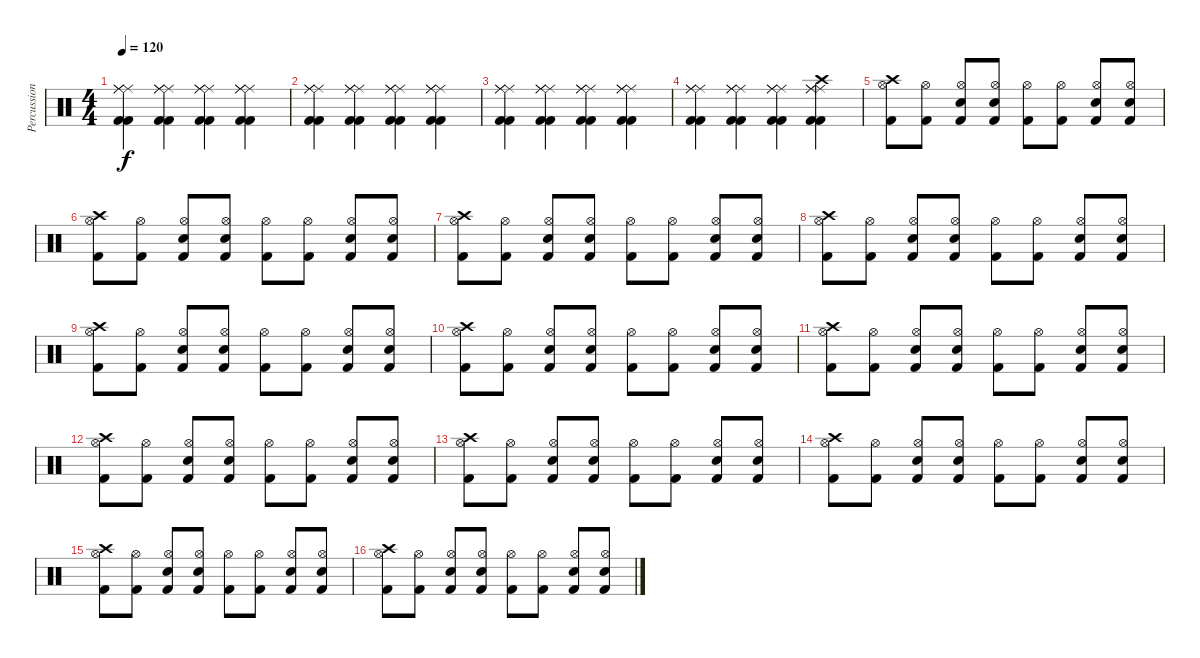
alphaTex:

\track ("Percussioni" "Percussion") {instrument percussion}
\staff {score}
\articulation defaults
\ts (4 4)
\tempo 120
\clef neutral
\ks c
("Kick (hit) 2" "Kick (hit) 2" "Ride (middle)" "Ride (middle)" "Ride (middle)").4{dy f} ("Kick (hit) 2" "Kick (hit) 2" "Ride (middle)" "Ride (middle)" "Ride (middle)").4 ("Kick (hit) 2" "Kick (hit) 2" "Ride (middle)" "Ride (middle)" "Ride (middle)").4 ("Kick (hit) 2" "Kick (hit) 2" "Ride (middle)" "Ride (middle)" "Ride (middle)").4 |
("Kick (hit) 2" "Kick (hit) 2" "Ride (middle)" "Ride (middle)" "Ride (middle)").4 ("Kick (hit) 2" "Kick (hit) 2" "Ride (middle)" "Ride (middle)" "Ride (middle)").4 ("Kick (hit) 2" "Kick (hit) 2" "Ride (middle)" "Ride (middle)" "Ride (middle)").4 ("Kick (hit) 2" "Kick (hit) 2" "Ride (middle)" "Ride (middle)" "Ride (middle)").4 |
("Kick (hit) 2" "Kick (hit) 2" "Ride (middle)" "Ride (middle)" "Ride (middle)").4 ("Kick (hit) 2" "Kick (hit) 2" "Ride (middle)" "Ride (middle)" "Ride (middle)").4 ("Kick (hit) 2" "Kick (hit) 2" "Ride (middle)" "Ride (middle)" "Ride (middle)").4 ("Kick (hit) 2" "Kick (hit) 2" "Ride (middle)" "Ride (middle)" "Ride (middle)").4 |
("Kick (hit) 2" "Kick (hit) 2" "Ride (middle)" "Ride (middle)" "Ride (middle)").4 ("Kick (hit) 2" "Kick (hit) 2" "Ride (middle)" "Ride (middle)" "Ride (middle)").4 ("Kick (hit) 2" "Kick (hit) 2" "Ride (middle)" "Ride (middle)" "Ride (middle)").4 ("Crash high (hit)" "Kick (hit) 2" "Kick (hit) 2" "Ride (middle)" "Ride (middle)" "Ride (middle)").4 |
("Hi-Hat (open)" "Kick (hit) 2" "Crash high (hit)").8 ("Hi-Hat (open)" "Kick (hit) 2").8 ("Hi-Hat (open)" "Kick (hit) 2" "Electric Snare (hit)").8 ("Hi-Hat (open)" "Kick (hit) 2" "Electric Snare (hit)").8 ("Hi-Hat (open)" "Kick (hit) 2").8 ("Hi-Hat (open)" "Kick (hit) 2").8 ("Hi-Hat (open)" "Kick (hit) 2" "Electric Snare (hit)").8 ("Hi-Hat (open)" "Kick (hit) 2" "Electric Snare (hit)").8 |
("Hi-Hat (open)" "Kick (hit) 2" "Crash high (hit)").8 ("Hi-Hat (open)" "Kick (hit) 2").8 ("Hi-Hat (open)" "Kick (hit) 2" "Electric Snare (hit)").8 ("Hi-Hat (open)" "Kick (hit) 2" "Electric Snare (hit)").8 ("Hi-Hat (open)" "Kick (hit) 2").8 ("Hi-Hat (open)" "Kick (hit) 2").8 ("Hi-Hat (open)" "Kick (hit) 2" "Electric Snare (hit)").8 ("Hi-Hat (open)" "Kick (hit) 2" "Electric Snare (hit)").8 |
("Hi-Hat (open)" "Kick (hit) 2" "Crash high (hit)").8 ("Hi-Hat (open)" "Kick (hit) 2").8 ("Hi-Hat (open)" "Kick (hit) 2" "Electric Snare (hit)").8 ("Hi-Hat (open)" "Kick (hit) 2" "Electric Snare (hit)").8 ("Hi-Hat (open)" "Kick (hit) 2").8 ("Hi-Hat (open)" "Kick (hit) 2").8 ("Hi-Hat (open)" "Kick (hit) 2" "Electric Snare (hit)").8 ("Hi-Hat (open)" "Kick (hit) 2" "Electric Snare (hit)").8 |
("Hi-Hat (open)" "Kick (hit) 2" "Crash high (hit)").8 ("Hi-Hat (open)" "Kick (hit) 2").8 ("Hi-Hat (open)" "Kick (hit) 2" "Electric Snare (hit)").8 ("Hi-Hat (open)" "Kick (hit) 2" "Electric Snare (hit)").8 ("Hi-Hat (open)" "Kick (hit) 2").8 ("Hi-Hat (open)" "Kick (hit) 2").8 ("Hi-Hat (open)" "Kick (hit) 2" "Electric Snare (hit)").8 ("Hi-Hat (open)" "Kick (hit) 2" "Electric Snare (hit)").8 |
("Hi-Hat (open)" "Kick (hit) 2" "Crash high (hit)").8 ("Hi-Hat (open)" "Kick (hit) 2").8 ("Hi-Hat (open)" "Kick (hit) 2" "Electric Snare (hit)").8 ("Hi-Hat (open)" "Kick (hit) 2" "Electric Snare (hit)").8 ("Hi-Hat (open)" "Kick (hit) 2").8 ("Hi-Hat (open)" "Kick (hit) 2").8 ("Hi-Hat (open)" "Kick (hit) 2" "Electric Snare (hit)").8 ("Hi-Hat (open)" "Kick (hit) 2" "Electric Snare (hit)").8 |
("Hi-Hat (open)" "Kick (hit) 2" "Crash high (hit)").8 ("Hi-Hat (open)" "Kick (hit) 2").8 ("Hi-Hat (open)" "Kick (hit) 2" "Electric Snare (hit)").8 ("Hi-Hat (open)" "Kick (hit) 2" "Electric Snare (hit)").8 ("Hi-Hat (open)" "Kick (hit) 2").8 ("Hi-Hat (open)" "Kick (hit) 2").8 ("Hi-Hat (open)" "Kick (hit) 2" "Electric Snare (hit)").8 ("Hi-Hat (open)" "Kick (hit) 2" "Electric Snare (hit)").8 |
("Hi-Hat (open)" "Kick (hit) 2" "Crash high (hit)").8 ("Hi-Hat (open)" "Kick (hit) 2").8 ("Hi-Hat (open)" "Kick (hit) 2" "Electric Snare (hit)").8 ("Hi-Hat (open)" "Kick (hit) 2" "Electric Snare (hit)").8 ("Hi-Hat (open)" "Kick (hit) 2").8 ("Hi-Hat (open)" "Kick (hit) 2").8 ("Hi-Hat (open)" "Kick (hit) 2" "Electric Snare (hit)").8 ("Hi-Hat (open)" "Kick (hit) 2" "Electric Snare (hit)").8 |
("Hi-Hat (open)" "Kick (hit) 2" "Crash high (hit)").8 ("Hi-Hat (open)" "Kick (hit) 2").8 ("Hi-Hat (open)" "Kick (hit) 2" "Electric Snare (hit)").8 ("Hi-Hat (open)" "Kick (hit) 2" "Electric Snare (hit)").8 ("Hi-Hat (open)" "Kick (hit) 2").8 ("Hi-Hat (open)" "Kick (hit) 2").8 ("Hi-Hat (open)" "Kick (hit) 2" "Electric Snare (hit)").8 ("Hi-Hat (open)" "Kick (hit) 2" "Electric Snare (hit)").8 |
("Hi-Hat (open)" "Kick (hit) 2" "Crash high (hit)").8 ("Hi-Hat (open)" "Kick (hit) 2").8 ("Hi-Hat (open)" "Kick (hit) 2" "Electric Snare (hit)").8 ("Hi-Hat (open)" "Kick (hit) 2" "Electric Snare (hit)").8 ("Hi-Hat (open)" "Kick (hit) 2").8 ("Hi-Hat (open)" "Kick (hit) 2").8 ("Hi-Hat (open)" "Kick (hit) 2" "Electric Snare (hit)").8 ("Hi-Hat (open)" "Kick (hit) 2" "Electric Snare (hit)").8 |
("Hi-Hat (open)" "Kick (hit) 2" "Crash high (hit)").8 ("Hi-Hat (open)" "Kick (hit) 2").8 ("Hi-Hat (open)" "Kick (hit) 2" "Electric Snare (hit)").8 ("Hi-Hat (open)" "Kick (hit) 2" "Electric Snare (hit)").8 ("Hi-Hat (open)" "Kick (hit) 2").8 ("Hi-Hat (open)" "Kick (hit) 2").8 ("Hi-Hat (open)" "Kick (hit) 2" "Electric Snare (hit)").8 ("Hi-Hat (open)" "Kick (hit) 2" "Electric Snare (hit)").8 |
("Hi-Hat (open)" "Kick (hit) 2" "Crash high (hit)").8 ("Hi-Hat (open)" "Kick (hit) 2").8 ("Hi-Hat (open)" "Kick (hit) 2" "Electric Snare (hit)").8 ("Hi-Hat (open)" "Kick (hit) 2" "Electric Snare (hit)").8 ("Hi-Hat (open)" "Kick (hit) 2").8 ("Hi-Hat (open)" "Kick (hit) 2").8 ("Hi-Hat (open)" "Kick (hit) 2" "Electric Snare (hit)").8 ("Hi-Hat (open)" "Kick (hit) 2" "Electric Snare (hit)").8 |
("Hi-Hat (open)" "Kick (hit) 2" "Crash high (hit)").8 ("Hi-Hat (open)" "Kick (hit) 2").8 ("Hi-Hat (open)" "Kick (hit) 2" "Electric Snare (hit)").8 ("Hi-Hat (open)" "Kick (hit) 2" "Electric Snare (hit)").8 ("Hi-Hat (open)" "Kick (hit) 2").8 ("Hi-Hat (open)" "Kick (hit) 2").8 ("Hi-Hat (open)" "Kick (hit) 2" "Electric Snare (hit)").8 ("Hi-Hat (open)" "Kick (hit) 2" "Electric Snare (hit)").8
